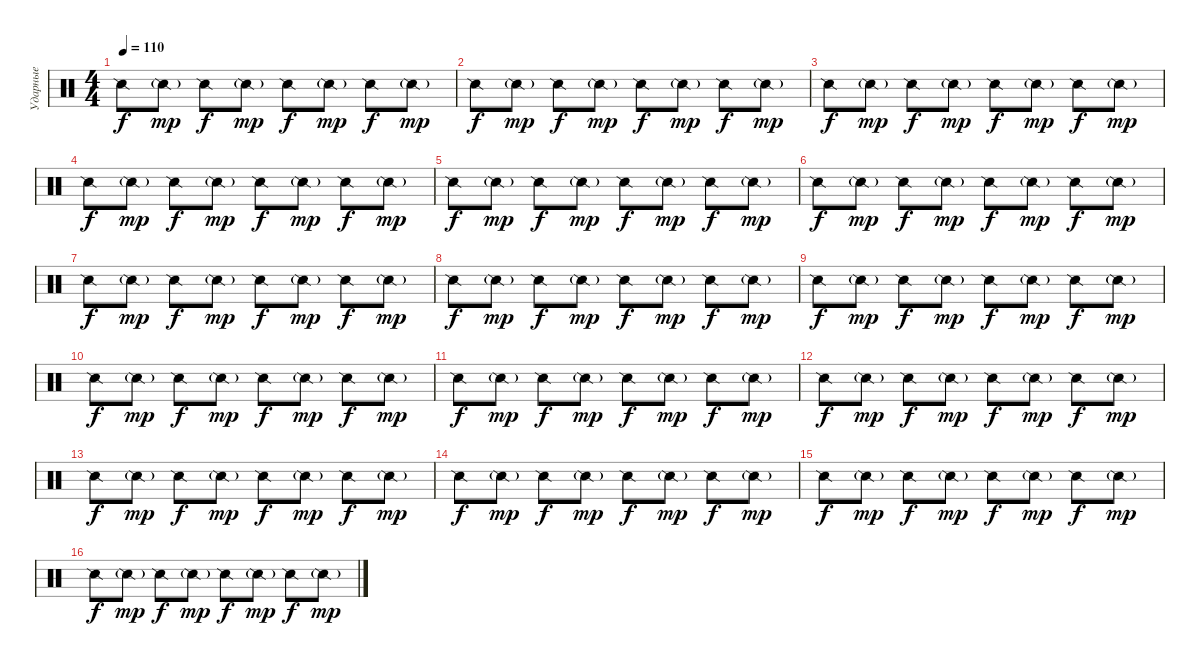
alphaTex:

\track ("Ударные" "Ударные") {instrument percussion}
\staff {score}
\articulation defaults
\ts (4 4)
\tempo 110
\clef neutral
\ks c "Snare (side stick) 2".8{dy f} "Snare (side stick) 2"{g}.8{dy mp} "Snare (side stick) 2".8{dy f} "Snare (side stick) 2"{g}.8{dy mp} "Snare (side stick) 2".8{dy f} "Snare (side stick) 2"{g}.8{dy mp} "Snare (side stick) 2".8{dy f} "Snare (side stick) 2"{g}.8{dy mp}
|
"Snare (side stick) 2".8{dy f} "Snare (side stick) 2"{g}.8{dy mp} "Snare (side stick) 2".8{dy f} "Snare (side stick) 2"{g}.8{dy mp} "Snare (side stick) 2".8{dy f} "Snare (side stick) 2"{g}.8{dy mp} "Snare (side stick) 2".8{dy f} "Snare (side stick) 2"{g}.8{dy mp} |
"Snare (side stick) 2".8{dy f} "Snare (side stick) 2"{g}.8{dy mp} "Snare (side stick) 2".8{dy f} "Snare (side stick) 2"{g}.8{dy mp} "Snare (side stick) 2".8{dy f} "Snare (side stick) 2"{g}.8{dy mp} "Snare (side stick) 2".8{dy f} "Snare (side stick) 2"{g}.8{dy mp} |
"Snare (side stick) 2".8{dy f} "Snare (side stick) 2"{g}.8{dy mp} "Snare (side stick) 2".8{dy f} "Snare (side stick) 2"{g}.8{dy mp} "Snare (side stick) 2".8{dy f} "Snare (side stick) 2"{g}.8{dy mp} "Snare (side stick) 2".8{dy f} "Snare (side stick) 2"{g}.8{dy mp} |
"Snare (side stick) 2".8{dy f} "Snare (side stick) 2"{g}.8{dy mp} "Snare (side stick) 2".8{dy f} "Snare (side stick) 2"{g}.8{dy mp} "Snare (side stick) 2".8{dy f} "Snare (side stick) 2"{g}.8{dy mp} "Snare (side stick) 2".8{dy f} "Snare (side stick) 2"{g}.8{dy mp} |
"Snare (side stick) 2".8{dy f} "Snare (side stick) 2"{g}.8{dy mp} "Snare (side stick) 2".8{dy f} "Snare (side stick) 2"{g}.8{dy mp} "Snare (side stick) 2".8{dy f} "Snare (side stick) 2"{g}.8{dy mp} "Snare (side stick) 2".8{dy f} "Snare (side stick) 2"{g}.8{dy mp} |
"Snare (side stick) 2".8{dy f} "Snare (side stick) 2"{g}.8{dy mp} "Snare (side stick) 2".8{dy f} "Snare (side stick) 2"{g}.8{dy mp} "Snare (side stick) 2".8{dy f} "Snare (side stick) 2"{g}.8{dy mp} "Snare (side stick) 2".8{dy f} "Snare (side stick) 2"{g}.8{dy mp} |
"Snare (side stick) 2".8{dy f} "Snare (side stick) 2"{g}.8{dy mp} "Snare (side stick) 2".8{dy f} "Snare (side stick) 2"{g}.8{dy mp} "Snare (side stick) 2".8{dy f} "Snare (side stick) 2"{g}.8{dy mp} "Snare (side stick) 2".8{dy f} "Snare (side stick) 2"{g}.8{dy mp} |
"Snare (side stick) 2".8{dy f} "Snare (side stick) 2"{g}.8{dy mp} "Snare (side stick) 2".8{dy f} "Snare (side stick) 2"{g}.8{dy mp} "Snare (side stick) 2".8{dy f} "Snare (side stick) 2"{g}.8{dy mp} "Snare (side stick) 2".8{dy f} "Snare (side stick) 2"{g}.8{dy mp} |
"Snare (side stick) 2".8{dy f} "Snare (side stick) 2"{g}.8{dy mp} "Snare (side stick) 2".8{dy f} "Snare (side stick) 2"{g}.8{dy mp} "Snare (side stick) 2".8{dy f} "Snare (side stick) 2"{g}.8{dy mp} "Snare (side stick) 2".8{dy f} "Snare (side stick) 2"{g}.8{dy mp} |
"Snare (side stick) 2".8{dy f} "Snare (side stick) 2"{g}.8{dy mp} "Snare (side stick) 2".8{dy f} "Snare (side stick) 2"{g}.8{dy mp} "Snare (side stick) 2".8{dy f} "Snare (side stick) 2"{g}.8{dy mp} "Snare (side stick) 2".8{dy f} "Snare (side stick) 2"{g}.8{dy mp} |
"Snare (side stick) 2".8{dy f} "Snare (side stick) 2"{g}.8{dy mp} "Snare (side stick) 2".8{dy f} "Snare (side stick) 2"{g}.8{dy mp} "Snare (side stick) 2".8{dy f} "Snare (side stick) 2"{g}.8{dy mp} "Snare (side stick) 2".8{dy f} "Snare (side stick) 2"{g}.8{dy mp} |
"Snare (side stick) 2".8{dy f} "Snare (side stick) 2"{g}.8{dy mp} "Snare (side stick) 2".8{dy f} "Snare (side stick) 2"{g}.8{dy mp} "Snare (side stick) 2".8{dy f} "Snare (side stick) 2"{g}.8{dy mp} "Snare (side stick) 2".8{dy f} "Snare (side stick) 2"{g}.8{dy mp} |
"Snare (side stick) 2".8{dy f} "Snare (side stick) 2"{g}.8{dy mp} "Snare (side stick) 2".8{dy f} "Snare (side stick) 2"{g}.8{dy mp} "Snare (side stick) 2".8{dy f} "Snare (side stick) 2"{g}.8{dy mp} "Snare (side stick) 2".8{dy f} "Snare (side stick) 2"{g}.8{dy mp} |
"Snare (side stick) 2".8{dy f} "Snare (side stick) 2"{g}.8{dy mp} "Snare (side stick) 2".8{dy f} "Snare (side stick) 2"{g}.8{dy mp} "Snare (side stick) 2".8{dy f} "Snare (side stick) 2"{g}.8{dy mp} "Snare (side stick) 2".8{dy f} "Snare (side stick) 2"{g}.8{dy mp} |
"Snare (side stick) 2".8{dy f} "Snare (side stick) 2"{g}.8{dy mp} "Snare (side stick) 2".8{dy f} "Snare (side stick) 2"{g}.8{dy mp} "Snare (side stick) 2".8{dy f} "Snare (side stick) 2"{g}.8{dy mp} "Snare (side stick) 2".8{dy f} "Snare (side stick) 2"{g}.8{dy mp}
